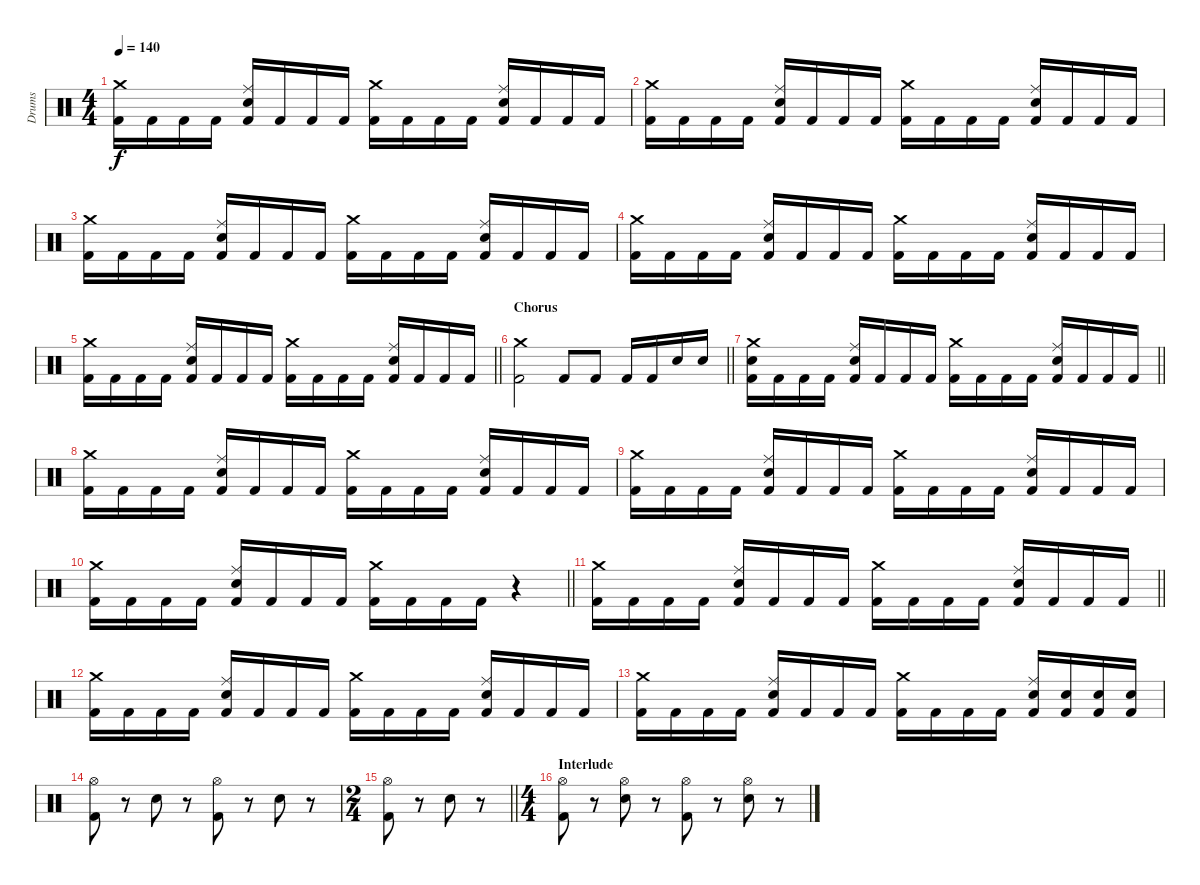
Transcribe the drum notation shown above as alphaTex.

\track ("Drums" "Drums") {instrument percussion}
\staff {score}
\articulation defaults
\ts (4 4)
\tempo 140
\clef neutral
\ks c
("Crash medium (hit)" "Kick (hit) 2").16{dy f} "Kick (hit) 2".16 "Kick (hit) 2".16 "Kick (hit) 2".16 ("Ride (middle)" "Snare (hit) 2" "Kick (hit) 2").16 "Kick (hit) 2".16 "Kick (hit) 2".16 "Kick (hit) 2".16 ("Crash medium (hit)" "Kick (hit) 2").16 "Kick (hit) 2".16 "Kick (hit) 2".16 "Kick (hit) 2".16 ("Ride (middle)" "Snare (hit) 2" "Kick (hit) 2").16 "Kick (hit) 2".16 "Kick (hit) 2".16 "Kick (hit) 2".16 |
("Crash medium (hit)" "Kick (hit) 2").16 "Kick (hit) 2".16 "Kick (hit) 2".16 "Kick (hit) 2".16 ("Ride (middle)" "Snare (hit) 2" "Kick (hit) 2").16 "Kick (hit) 2".16 "Kick (hit) 2".16 "Kick (hit) 2".16 ("Crash medium (hit)" "Kick (hit) 2").16 "Kick (hit) 2".16 "Kick (hit) 2".16 "Kick (hit) 2".16 ("Ride (middle)" "Snare (hit) 2" "Kick (hit) 2").16 "Kick (hit) 2".16 "Kick (hit) 2".16 "Kick (hit) 2".16 |
("Crash medium (hit)" "Kick (hit) 2").16 "Kick (hit) 2".16 "Kick (hit) 2".16 "Kick (hit) 2".16 ("Ride (middle)" "Snare (hit) 2" "Kick (hit) 2").16 "Kick (hit) 2".16 "Kick (hit) 2".16 "Kick (hit) 2".16 ("Crash medium (hit)" "Kick (hit) 2").16 "Kick (hit) 2".16 "Kick (hit) 2".16 "Kick (hit) 2".16 ("Ride (middle)" "Snare (hit) 2" "Kick (hit) 2").16 "Kick (hit) 2".16 "Kick (hit) 2".16 "Kick (hit) 2".16 |
("Crash medium (hit)" "Kick (hit) 2").16 "Kick (hit) 2".16 "Kick (hit) 2".16 "Kick (hit) 2".16 ("Ride (middle)" "Snare (hit) 2" "Kick (hit) 2").16 "Kick (hit) 2".16 "Kick (hit) 2".16 "Kick (hit) 2".16 ("Crash medium (hit)" "Kick (hit) 2").16 "Kick (hit) 2".16 "Kick (hit) 2".16 "Kick (hit) 2".16 ("Ride (middle)" "Snare (hit) 2" "Kick (hit) 2").16 "Kick (hit) 2".16 "Kick (hit) 2".16 "Kick (hit) 2".16 |
\barLineRight lightlight
("Crash medium (hit)" "Kick (hit) 2").16 "Kick (hit) 2".16 "Kick (hit) 2".16 "Kick (hit) 2".16 ("Ride (middle)" "Snare (hit) 2" "Kick (hit) 2").16 "Kick (hit) 2".16 "Kick (hit) 2".16 "Kick (hit) 2".16 ("Crash medium (hit)" "Kick (hit) 2").16 "Kick (hit) 2".16 "Kick (hit) 2".16 "Kick (hit) 2".16 ("Ride (middle)" "Snare (hit) 2" "Kick (hit) 2").16 "Kick (hit) 2".16 "Kick (hit) 2".16 "Kick (hit) 2".16 |
\section ("" "Chorus")
\barLineRight lightlight
("Crash medium (hit)" "Kick (hit) 2").2 "Kick (hit) 2".8 "Kick (hit) 2".8 "Kick (hit) 2".16 "Kick (hit) 2".16 "Snare (hit) 2".16 "Snare (hit) 2".16 |
\barLineRight lightlight
("Crash medium (hit)" "Snare (hit) 2" "Kick (hit) 2").16 "Kick (hit) 2".16 "Kick (hit) 2".16 "Kick (hit) 2".16 ("Ride (middle)" "Snare (hit) 2" "Kick (hit) 2").16 "Kick (hit) 2".16 "Kick (hit) 2".16 "Kick (hit) 2".16 ("Crash medium (hit)" "Kick (hit) 2").16 "Kick (hit) 2".16 "Kick (hit) 2".16 "Kick (hit) 2".16 ("Ride (middle)" "Snare (hit) 2" "Kick (hit) 2").16 "Kick (hit) 2".16 "Kick (hit) 2".16 "Kick (hit) 2".16 |
("Crash medium (hit)" "Kick (hit) 2").16 "Kick (hit) 2".16 "Kick (hit) 2".16 "Kick (hit) 2".16 ("Ride (middle)" "Snare (hit) 2" "Kick (hit) 2").16 "Kick (hit) 2".16 "Kick (hit) 2".16 "Kick (hit) 2".16 ("Crash medium (hit)" "Kick (hit) 2").16 "Kick (hit) 2".16 "Kick (hit) 2".16 "Kick (hit) 2".16 ("Ride (middle)" "Snare (hit) 2" "Kick (hit) 2").16 "Kick (hit) 2".16 "Kick (hit) 2".16 "Kick (hit) 2".16 |
("Crash medium (hit)" "Kick (hit) 2").16 "Kick (hit) 2".16 "Kick (hit) 2".16 "Kick (hit) 2".16 ("Ride (middle)" "Snare (hit) 2" "Kick (hit) 2").16 "Kick (hit) 2".16 "Kick (hit) 2".16 "Kick (hit) 2".16 ("Crash medium (hit)" "Kick (hit) 2").16 "Kick (hit) 2".16 "Kick (hit) 2".16 "Kick (hit) 2".16 ("Ride (middle)" "Snare (hit) 2" "Kick (hit) 2").16 "Kick (hit) 2".16 "Kick (hit) 2".16 "Kick (hit) 2".16 |
\barLineRight lightlight
("Crash medium (hit)" "Kick (hit) 2").16 "Kick (hit) 2".16 "Kick (hit) 2".16 "Kick (hit) 2".16 ("Ride (middle)" "Snare (hit) 2" "Kick (hit) 2").16 "Kick (hit) 2".16 "Kick (hit) 2".16 "Kick (hit) 2".16 ("Crash medium (hit)" "Kick (hit) 2").16 "Kick (hit) 2".16 "Kick (hit) 2".16 "Kick (hit) 2".16 r.4 |
\barLineRight lightlight
("Crash medium (hit)" "Kick (hit) 2").16 "Kick (hit) 2".16 "Kick (hit) 2".16 "Kick (hit) 2".16 ("Ride (middle)" "Snare (hit) 2" "Kick (hit) 2").16 "Kick (hit) 2".16 "Kick (hit) 2".16 "Kick (hit) 2".16 ("Crash medium (hit)" "Kick (hit) 2").16 "Kick (hit) 2".16 "Kick (hit) 2".16 "Kick (hit) 2".16 ("Ride (middle)" "Snare (hit) 2" "Kick (hit) 2").16 "Kick (hit) 2".16 "Kick (hit) 2".16 "Kick (hit) 2".16 |
("Crash medium (hit)" "Kick (hit) 2").16 "Kick (hit) 2".16 "Kick (hit) 2".16 "Kick (hit) 2".16 ("Ride (middle)" "Snare (hit) 2" "Kick (hit) 2").16 "Kick (hit) 2".16 "Kick (hit) 2".16 "Kick (hit) 2".16 ("Crash medium (hit)" "Kick (hit) 2").16 "Kick (hit) 2".16 "Kick (hit) 2".16 "Kick (hit) 2".16 ("Ride (middle)" "Snare (hit) 2" "Kick (hit) 2").16 "Kick (hit) 2".16 "Kick (hit) 2".16 "Kick (hit) 2".16 |
("Crash medium (hit)" "Kick (hit) 2").16 "Kick (hit) 2".16 "Kick (hit) 2".16 "Kick (hit) 2".16 ("Ride (middle)" "Snare (hit) 2" "Kick (hit) 2").16 "Kick (hit) 2".16 "Kick (hit) 2".16 "Kick (hit) 2".16 ("Crash medium (hit)" "Kick (hit) 2").16 "Kick (hit) 2".16 "Kick (hit) 2".16 "Kick (hit) 2".16 ("Ride (middle)" "Snare (hit) 2" "Kick (hit) 2").16 ("Snare (hit) 2" "Kick (hit) 2").16 ("Snare (hit) 2" "Kick (hit) 2").16 ("Snare (hit) 2" "Kick (hit) 2").16 |
("Hi-Hat (open)" "Kick (hit) 2").8 r.8 "Snare (hit) 2".8 r.8 ("Hi-Hat (open)" "Kick (hit) 2").8 r.8 "Snare (hit) 2".8 r.8 |
\ts (2 4)
\barLineRight lightlight
("Hi-Hat (open)" "Kick (hit) 2").8 r.8 "Snare (hit) 2".8 r.8 |
\ts (4 4)
\section ("" "Interlude")
("Hi-Hat (open)" "Kick (hit) 2").8 r.8 ("Hi-Hat (open)" "Snare (hit) 2").8 r.8 ("Hi-Hat (open)" "Kick (hit) 2").8 r.8 ("Hi-Hat (open)" "Snare (hit) 2").8 r.8
